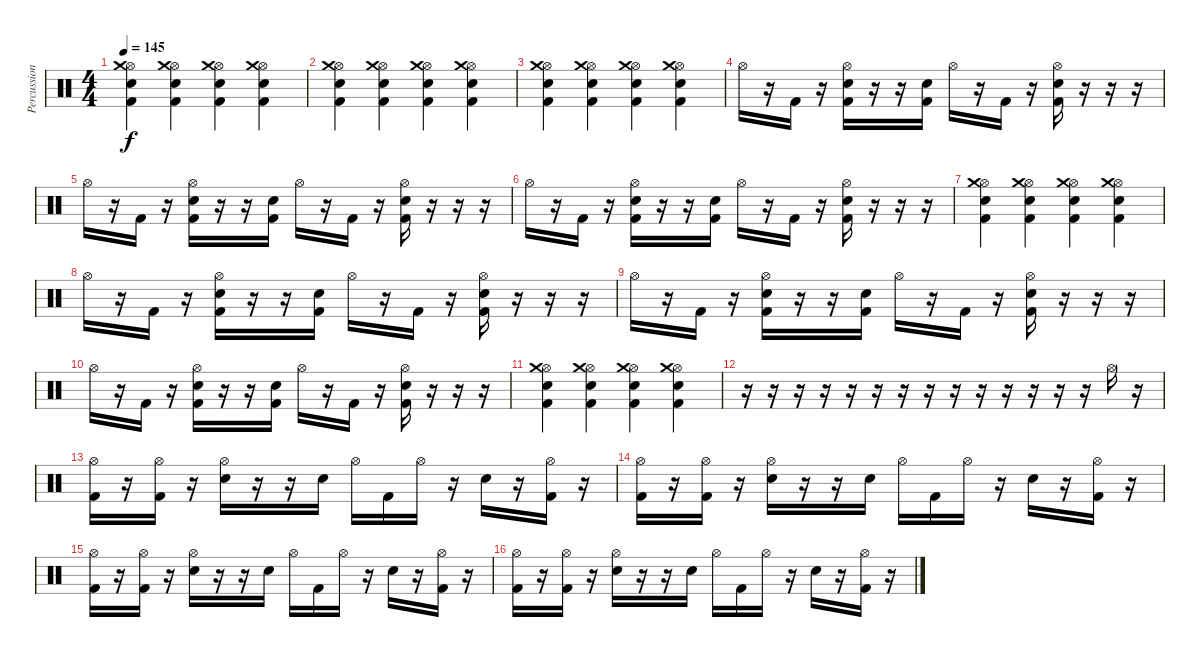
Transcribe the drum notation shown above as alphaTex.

\track ("Percussions" "Percussion") {instrument percussion}
\staff {score}
\articulation defaults
\ts (4 4)
\tempo 145
\clef neutral
\ks c
("Hi-Hat (open)" "Electric Snare (hit)" "Crash medium (hit)" "Kick (hit) 2").4{dy f} ("Hi-Hat (open)" "Electric Snare (hit)" "Crash medium (hit)" "Kick (hit) 2").4 ("Hi-Hat (open)" "Electric Snare (hit)" "Crash medium (hit)" "Kick (hit) 2").4 ("Hi-Hat (open)" "Electric Snare (hit)" "Crash medium (hit)" "Kick (hit) 2").4 |
("Hi-Hat (open)" "Electric Snare (hit)" "Crash medium (hit)" "Kick (hit) 2").4 ("Hi-Hat (open)" "Electric Snare (hit)" "Crash medium (hit)" "Kick (hit) 2").4 ("Hi-Hat (open)" "Electric Snare (hit)" "Crash medium (hit)" "Kick (hit) 2").4 ("Hi-Hat (open)" "Electric Snare (hit)" "Crash medium (hit)" "Kick (hit) 2").4 |
("Hi-Hat (open)" "Electric Snare (hit)" "Crash medium (hit)" "Kick (hit) 2").4 ("Hi-Hat (open)" "Electric Snare (hit)" "Crash medium (hit)" "Kick (hit) 2").4 ("Hi-Hat (open)" "Electric Snare (hit)" "Crash medium (hit)" "Kick (hit) 2").4 ("Hi-Hat (open)" "Electric Snare (hit)" "Crash medium (hit)" "Kick (hit) 2").4 |
"Hi-Hat (open)".16 r.16 "Kick (hit) 2".16 r.16 ("Hi-Hat (open)" "Electric Snare (hit)" "Kick (hit) 2").16 r.16 r.16 ("Electric Snare (hit)" "Kick (hit) 2").16 "Hi-Hat (open)".16 r.16 "Kick (hit) 2".16 r.16 ("Hi-Hat (open)" "Electric Snare (hit)" "Kick (hit) 2").16 r.16 r.16 r.16 |
"Hi-Hat (open)".16 r.16 "Kick (hit) 2".16 r.16 ("Hi-Hat (open)" "Electric Snare (hit)" "Kick (hit) 2").16 r.16 r.16 ("Electric Snare (hit)" "Kick (hit) 2").16 "Hi-Hat (open)".16 r.16 "Kick (hit) 2".16 r.16 ("Hi-Hat (open)" "Electric Snare (hit)" "Kick (hit) 2").16 r.16 r.16 r.16 |
"Hi-Hat (open)".16 r.16 "Kick (hit) 2".16 r.16 ("Hi-Hat (open)" "Electric Snare (hit)" "Kick (hit) 2").16 r.16 r.16 ("Electric Snare (hit)" "Kick (hit) 2").16 "Hi-Hat (open)".16 r.16 "Kick (hit) 2".16 r.16 ("Hi-Hat (open)" "Electric Snare (hit)" "Kick (hit) 2").16 r.16 r.16 r.16 |
("Hi-Hat (open)" "Electric Snare (hit)" "Crash medium (hit)" "Kick (hit) 2").4 ("Hi-Hat (open)" "Electric Snare (hit)" "Crash medium (hit)" "Kick (hit) 2").4 ("Hi-Hat (open)" "Electric Snare (hit)" "Crash medium (hit)" "Kick (hit) 2").4 ("Hi-Hat (open)" "Electric Snare (hit)" "Crash medium (hit)" "Kick (hit) 2").4 |
"Hi-Hat (open)".16 r.16 "Kick (hit) 2".16 r.16 ("Hi-Hat (open)" "Electric Snare (hit)" "Kick (hit) 2").16 r.16 r.16 ("Electric Snare (hit)" "Kick (hit) 2").16 "Hi-Hat (open)".16 r.16 "Kick (hit) 2".16 r.16 ("Hi-Hat (open)" "Electric Snare (hit)" "Kick (hit) 2").16 r.16 r.16 r.16 |
"Hi-Hat (open)".16 r.16 "Kick (hit) 2".16 r.16 ("Hi-Hat (open)" "Electric Snare (hit)" "Kick (hit) 2").16 r.16 r.16 ("Electric Snare (hit)" "Kick (hit) 2").16 "Hi-Hat (open)".16 r.16 "Kick (hit) 2".16 r.16 ("Hi-Hat (open)" "Electric Snare (hit)" "Kick (hit) 2").16 r.16 r.16 r.16 |
"Hi-Hat (open)".16 r.16 "Kick (hit) 2".16 r.16 ("Hi-Hat (open)" "Electric Snare (hit)" "Kick (hit) 2").16 r.16 r.16 ("Electric Snare (hit)" "Kick (hit) 2").16 "Hi-Hat (open)".16 r.16 "Kick (hit) 2".16 r.16 ("Hi-Hat (open)" "Electric Snare (hit)" "Kick (hit) 2").16 r.16 r.16 r.16 |
("Hi-Hat (open)" "Electric Snare (hit)" "Crash medium (hit)" "Kick (hit) 2").4 ("Hi-Hat (open)" "Electric Snare (hit)" "Crash medium (hit)" "Kick (hit) 2").4 ("Hi-Hat (open)" "Electric Snare (hit)" "Crash medium (hit)" "Kick (hit) 2").4 ("Hi-Hat (open)" "Electric Snare (hit)" "Crash medium (hit)" "Kick (hit) 2").4 |
r.16 r.16 r.16 r.16 r.16 r.16 r.16 r.16 r.16 r.16 r.16 r.16 r.16 r.16 "Hi-Hat (open)".16 r.16 |
("Hi-Hat (open)" "Kick (hit) 2").16 r.16 ("Hi-Hat (open)" "Kick (hit) 2").16 r.16 ("Hi-Hat (open)" "Electric Snare (hit)").16 r.16 r.16 "Electric Snare (hit)".16 "Hi-Hat (open)".16 "Kick (hit) 2".16 "Hi-Hat (open)".16 r.16 "Electric Snare (hit)".16 r.16 ("Hi-Hat (open)" "Kick (hit) 2").16 r.16 |
("Hi-Hat (open)" "Kick (hit) 2").16 r.16 ("Hi-Hat (open)" "Kick (hit) 2").16 r.16 ("Hi-Hat (open)" "Electric Snare (hit)").16 r.16 r.16 "Electric Snare (hit)".16 "Hi-Hat (open)".16 "Kick (hit) 2".16 "Hi-Hat (open)".16 r.16 "Electric Snare (hit)".16 r.16 ("Hi-Hat (open)" "Kick (hit) 2").16 r.16 |
("Hi-Hat (open)" "Kick (hit) 2").16 r.16 ("Hi-Hat (open)" "Kick (hit) 2").16 r.16 ("Hi-Hat (open)" "Electric Snare (hit)").16 r.16 r.16 "Electric Snare (hit)".16 "Hi-Hat (open)".16 "Kick (hit) 2".16 "Hi-Hat (open)".16 r.16 "Electric Snare (hit)".16 r.16 ("Hi-Hat (open)" "Kick (hit) 2").16 r.16 |
("Hi-Hat (open)" "Kick (hit) 2").16 r.16 ("Hi-Hat (open)" "Kick (hit) 2").16 r.16 ("Hi-Hat (open)" "Electric Snare (hit)").16 r.16 r.16 "Electric Snare (hit)".16 "Hi-Hat (open)".16 "Kick (hit) 2".16 "Hi-Hat (open)".16 r.16 "Electric Snare (hit)".16 r.16 ("Hi-Hat (open)" "Kick (hit) 2").16 r.16
